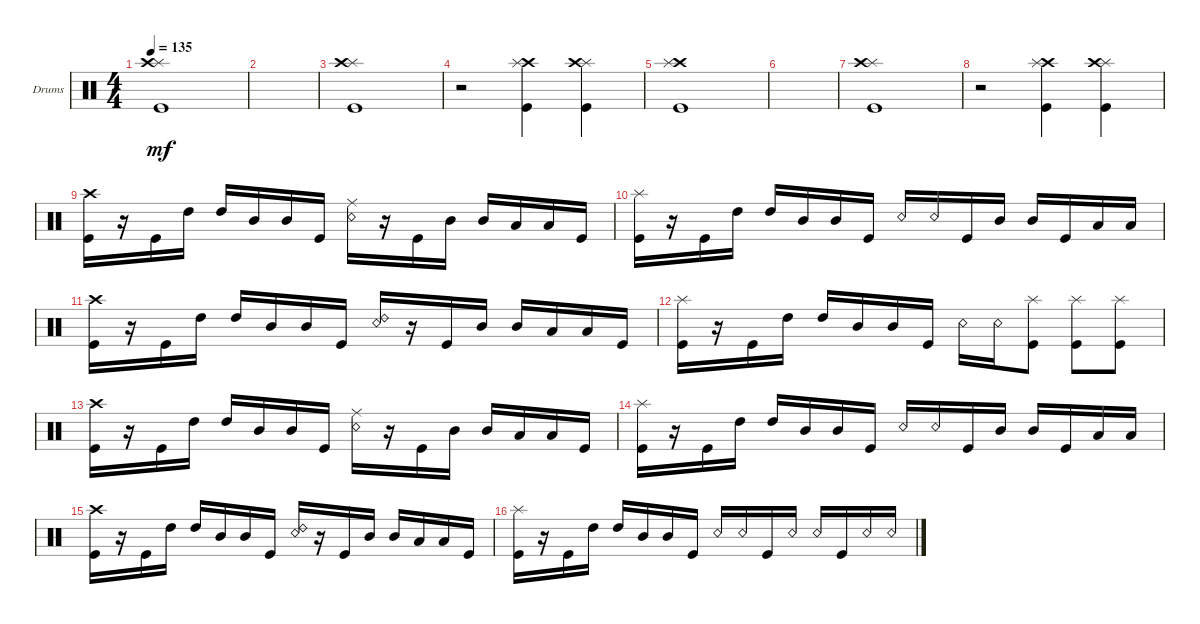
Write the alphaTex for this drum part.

\defaultSystemsLayout 4
\bracketExtendMode groupsimilarinstruments
\firstSystemTrackNameOrientation horizontal
\otherSystemsTrackNameOrientation horizontal
\track ("Drumkit" "Drums") {instrument percussion}
\staff {score}
\articulation defaults
\ts (4 4)
\tempo 135
\clef neutral
\ks c
("Kick (hit)" "Splash (hit)" "Crash high (hit)").1{dy mf} |
|
("Kick (hit)" "Splash (hit)" "Crash high (hit)").1 |
r.2 ("Kick (hit)" "Crash high (hit)" "Splash (hit)").4 ("Kick (hit)" "Splash (hit)" "Crash high (hit)").4 |
("Kick (hit)" "Crash high (hit)" "Splash (hit)").1 |
|
("Kick (hit)" "Splash (hit)" "Crash high (hit)").1 |
r.2 ("Kick (hit)" "Crash high (hit)" "Splash (hit)").4 ("Kick (hit)" "Splash (hit)" "Crash high (hit)").4 |
("Kick (hit)" "Crash high (hit)").16 r.16 "Kick (hit)".16 "High Tom (hit)".16 "High Tom (hit)".16 "Mid Tom (hit)".16 "Mid Tom (hit)".16 "Kick (hit)".16 ("Snare (rim shot)" "Ride (middle)").16 r.16 "Kick (hit)".16 "Mid Tom (hit)".16 "Mid Tom (hit)".16 "Low Tom (hit)".16 "Low Tom (hit)".16 "Kick (hit)".16 |
("Kick (hit)" "Splash (hit)").16 r.16 "Kick (hit)".16 "High Tom (hit)".16 "High Tom (hit)".16 "Mid Tom (hit)".16 "Mid Tom (hit)".16 "Kick (hit)".16 "Snare (rim shot)".16 "Snare (rim shot)".16 "Kick (hit)".16 "Mid Tom (hit)".16 "Mid Tom (hit)".16 "Kick (hit)".16 "Low Tom (hit)".16 "Low Tom (hit)".16 |
("Kick (hit)" "Crash high (hit)").16 r.16 "Kick (hit)".16 "High Tom (hit)".16 "High Tom (hit)".16 "Mid Tom (hit)".16 "Mid Tom (hit)".16 "Kick (hit)".16 ("Snare (rim shot)" "Ride (bell) 2").16 r.16 "Kick (hit)".16 "Mid Tom (hit)".16 "Mid Tom (hit)".16 "Low Tom (hit)".16 "Low Tom (hit)".16 "Kick (hit)".16 |
("Kick (hit)" "Splash (hit)").16 r.16 "Kick (hit)".16 "High Tom (hit)".16 "High Tom (hit)".16 "Mid Tom (hit)".16 "Mid Tom (hit)".16 "Kick (hit)".16 "Snare (rim shot)".16 "Snare (rim shot)".16 ("Kick (hit)" "Splash (hit)").8 ("Kick (hit)" "Splash (hit)").8 ("Kick (hit)" "Splash (hit)").8 |
("Kick (hit)" "Crash high (hit)").16 r.16 "Kick (hit)".16 "High Tom (hit)".16 "High Tom (hit)".16 "Mid Tom (hit)".16 "Mid Tom (hit)".16 "Kick (hit)".16 ("Snare (rim shot)" "Ride (middle)").16 r.16 "Kick (hit)".16 "Mid Tom (hit)".16 "Mid Tom (hit)".16 "Low Tom (hit)".16 "Low Tom (hit)".16 "Kick (hit)".16 |
("Kick (hit)" "Splash (hit)").16 r.16 "Kick (hit)".16 "High Tom (hit)".16 "High Tom (hit)".16 "Mid Tom (hit)".16 "Mid Tom (hit)".16 "Kick (hit)".16 "Snare (rim shot)".16 "Snare (rim shot)".16 "Kick (hit)".16 "Mid Tom (hit)".16 "Mid Tom (hit)".16 "Kick (hit)".16 "Low Tom (hit)".16 "Low Tom (hit)".16 |
("Kick (hit)" "Crash high (hit)").16 r.16 "Kick (hit)".16 "High Tom (hit)".16 "High Tom (hit)".16 "Mid Tom (hit)".16 "Mid Tom (hit)".16 "Kick (hit)".16 ("Snare (rim shot)" "Ride (bell) 2").16 r.16 "Kick (hit)".16 "Mid Tom (hit)".16 "Mid Tom (hit)".16 "Low Tom (hit)".16 "Low Tom (hit)".16 "Kick (hit)".16 |
("Kick (hit)" "Splash (hit)").16 r.16 "Kick (hit)".16 "High Tom (hit)".16 "High Tom (hit)".16 "Mid Tom (hit)".16 "Mid Tom (hit)".16 "Kick (hit)".16 "Snare (rim shot)".16 "Snare (rim shot)".16 "Kick (hit)".16 "Snare (rim shot)".16 "Snare (rim shot)".16 "Kick (hit)".16 "Snare (rim shot)".16 "Snare (rim shot)".16
